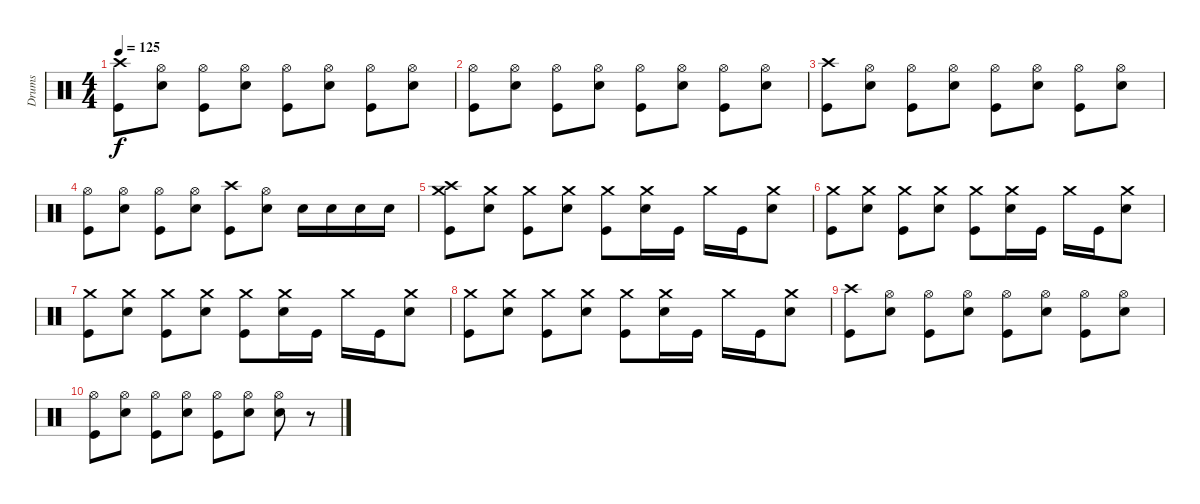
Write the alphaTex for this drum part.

\track ("Drums" "Drums") {instrument percussion}
\staff {score}
\articulation defaults
\ts (4 4)
\tempo 125
\clef neutral
\ks c
("Crash high (hit)" "Kick (hit)").8{dy f} ("Hi-Hat (open)" "Electric Snare (hit)").8 ("Hi-Hat (open)" "Kick (hit)").8 ("Hi-Hat (open)" "Electric Snare (hit)").8 ("Hi-Hat (open)" "Kick (hit)").8 ("Hi-Hat (open)" "Electric Snare (hit)").8 ("Hi-Hat (open)" "Kick (hit)").8 ("Hi-Hat (open)" "Electric Snare (hit)").8 |
("Hi-Hat (open)" "Kick (hit)").8 ("Hi-Hat (open)" "Electric Snare (hit)").8 ("Hi-Hat (open)" "Kick (hit)").8 ("Hi-Hat (open)" "Electric Snare (hit)").8 ("Hi-Hat (open)" "Kick (hit)").8 ("Hi-Hat (open)" "Electric Snare (hit)").8 ("Hi-Hat (open)" "Kick (hit)").8 ("Hi-Hat (open)" "Electric Snare (hit)").8 |
("Crash high (hit)" "Kick (hit)").8 ("Hi-Hat (open)" "Electric Snare (hit)").8 ("Hi-Hat (open)" "Kick (hit)").8 ("Hi-Hat (open)" "Electric Snare (hit)").8 ("Hi-Hat (open)" "Kick (hit)").8 ("Hi-Hat (open)" "Electric Snare (hit)").8 ("Hi-Hat (open)" "Kick (hit)").8 ("Hi-Hat (open)" "Electric Snare (hit)").8 |
("Hi-Hat (open)" "Kick (hit)").8 ("Hi-Hat (open)" "Electric Snare (hit)").8 ("Hi-Hat (open)" "Kick (hit)").8 ("Hi-Hat (open)" "Electric Snare (hit)").8 ("Crash high (hit)" "Kick (hit)").8 ("Hi-Hat (open)" "Electric Snare (hit)").8 "Electric Snare (hit)".16 "Electric Snare (hit)".16 "Electric Snare (hit)".16 "Electric Snare (hit)".16 |
("Crash high (hit)" "Crash medium (hit)" "Kick (hit)").8 ("Crash medium (hit)" "Electric Snare (hit)").8 ("Crash medium (hit)" "Kick (hit)").8 ("Crash medium (hit)" "Electric Snare (hit)").8 ("Crash medium (hit)" "Kick (hit)").8 ("Crash medium (hit)" "Electric Snare (hit)").16 "Kick (hit)".16 "Crash medium (hit)".16 "Kick (hit)".16 ("Crash medium (hit)" "Electric Snare (hit)").8 |
("Crash medium (hit)" "Kick (hit)").8 ("Crash medium (hit)" "Electric Snare (hit)").8 ("Crash medium (hit)" "Kick (hit)").8 ("Crash medium (hit)" "Electric Snare (hit)").8 ("Crash medium (hit)" "Kick (hit)").8 ("Crash medium (hit)" "Electric Snare (hit)").16 "Kick (hit)".16 "Crash medium (hit)".16 "Kick (hit)".16 ("Crash medium (hit)" "Electric Snare (hit)").8 |
("Crash medium (hit)" "Kick (hit)").8 ("Crash medium (hit)" "Electric Snare (hit)").8 ("Crash medium (hit)" "Kick (hit)").8 ("Crash medium (hit)" "Electric Snare (hit)").8 ("Crash medium (hit)" "Kick (hit)").8 ("Crash medium (hit)" "Electric Snare (hit)").16 "Kick (hit)".16 "Crash medium (hit)".16 "Kick (hit)".16 ("Crash medium (hit)" "Electric Snare (hit)").8 |
("Crash medium (hit)" "Kick (hit)").8 ("Crash medium (hit)" "Electric Snare (hit)").8 ("Crash medium (hit)" "Kick (hit)").8 ("Crash medium (hit)" "Electric Snare (hit)").8 ("Crash medium (hit)" "Kick (hit)").8 ("Crash medium (hit)" "Electric Snare (hit)").16 "Kick (hit)".16 "Crash medium (hit)".16 "Kick (hit)".16 ("Crash medium (hit)" "Electric Snare (hit)").8 |
("Crash high (hit)" "Kick (hit)").8 ("Hi-Hat (open)" "Electric Snare (hit)").8 ("Hi-Hat (open)" "Kick (hit)").8 ("Hi-Hat (open)" "Electric Snare (hit)").8 ("Hi-Hat (open)" "Kick (hit)").8 ("Hi-Hat (open)" "Electric Snare (hit)").8 ("Hi-Hat (open)" "Kick (hit)").8 ("Hi-Hat (open)" "Electric Snare (hit)").8 |
("Hi-Hat (open)" "Kick (hit)").8 ("Hi-Hat (open)" "Electric Snare (hit)").8 ("Hi-Hat (open)" "Kick (hit)").8 ("Hi-Hat (open)" "Electric Snare (hit)").8 ("Hi-Hat (open)" "Kick (hit)").8 ("Hi-Hat (open)" "Electric Snare (hit)").8 ("Hi-Hat (open)" "Electric Snare (hit)").8 r.8
